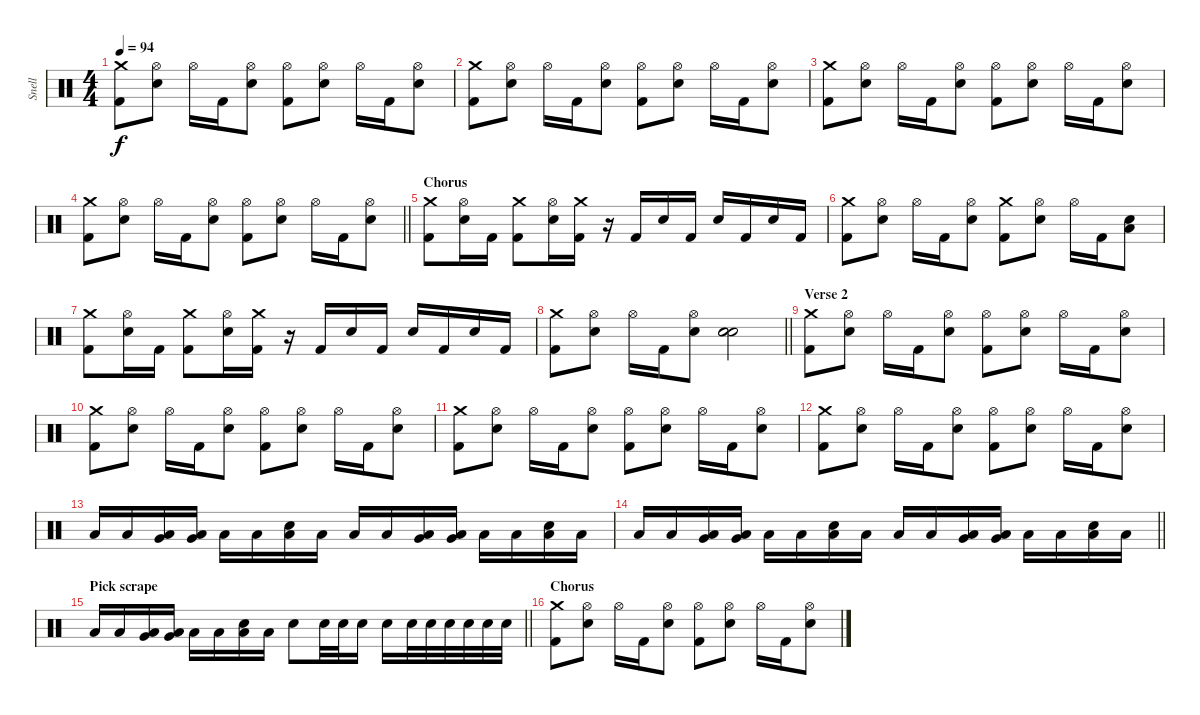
\track ("Snell" "Snell") {instrument percussion}
\staff {score}
\articulation defaults
\ts (4 4)
\tempo 94
\clef neutral
\ks c
("Crash medium (hit)" "Kick (hit) 2").8{dy f} ("Hi-Hat (open)" "Electric Snare (hit)").8 "Hi-Hat (open)".16 "Kick (hit) 2".16 ("Hi-Hat (open)" "Electric Snare (hit)").8 ("Hi-Hat (open)" "Kick (hit) 2").8 ("Hi-Hat (open)" "Electric Snare (hit)").8 "Hi-Hat (open)".16 "Kick (hit) 2".16 ("Hi-Hat (open)" "Electric Snare (hit)").8 |
("Crash medium (hit)" "Kick (hit) 2").8 ("Hi-Hat (open)" "Electric Snare (hit)").8 "Hi-Hat (open)".16 "Kick (hit) 2".16 ("Hi-Hat (open)" "Electric Snare (hit)").8 ("Hi-Hat (open)" "Kick (hit) 2").8 ("Hi-Hat (open)" "Electric Snare (hit)").8 "Hi-Hat (open)".16 "Kick (hit) 2".16 ("Hi-Hat (open)" "Electric Snare (hit)").8 |
("Crash medium (hit)" "Kick (hit) 2").8 ("Hi-Hat (open)" "Electric Snare (hit)").8 "Hi-Hat (open)".16 "Kick (hit) 2".16 ("Hi-Hat (open)" "Electric Snare (hit)").8 ("Hi-Hat (open)" "Kick (hit) 2").8 ("Hi-Hat (open)" "Electric Snare (hit)").8 "Hi-Hat (open)".16 "Kick (hit) 2".16 ("Hi-Hat (open)" "Electric Snare (hit)").8 |
\barLineRight lightlight
("Crash medium (hit)" "Kick (hit) 2").8 ("Hi-Hat (open)" "Electric Snare (hit)").8 "Hi-Hat (open)".16 "Kick (hit) 2".16 ("Hi-Hat (open)" "Electric Snare (hit)").8 ("Hi-Hat (open)" "Kick (hit) 2").8 ("Hi-Hat (open)" "Electric Snare (hit)").8 "Hi-Hat (open)".16 "Kick (hit) 2".16 ("Hi-Hat (open)" "Electric Snare (hit)").8 |
\section ("" "Chorus")
("Crash medium (hit)" "Kick (hit) 2").8 ("Hi-Hat (open)" "Electric Snare (hit)").16 "Kick (hit) 2".16 ("Crash medium (hit)" "Kick (hit) 2").8 ("Hi-Hat (open)" "Electric Snare (hit)").16 ("Crash medium (hit)" "Kick (hit) 2").16 r.16 "Kick (hit) 2".16 "Electric Snare (hit)".16 "Kick (hit) 2".16 "Electric Snare (hit)".16 "Kick (hit) 2".16 "Electric Snare (hit)".16 "Kick (hit) 2".16 |
("Crash medium (hit)" "Kick (hit) 2").8 ("Hi-Hat (open)" "Electric Snare (hit)").8 "Hi-Hat (open)".16 "Kick (hit) 2".16 ("Hi-Hat (open)" "Electric Snare (hit)").8 ("Crash medium (hit)" "Kick (hit) 2").8 ("Hi-Hat (open)" "Electric Snare (hit)").8 "Hi-Hat (open)".16 "Kick (hit) 2".16 ("Low Tom (hit)" "Electric Snare (hit)").8 |
("Crash medium (hit)" "Kick (hit) 2").8 ("Hi-Hat (open)" "Electric Snare (hit)").16 "Kick (hit) 2".16 ("Crash medium (hit)" "Kick (hit) 2").8 ("Hi-Hat (open)" "Electric Snare (hit)").16 ("Crash medium (hit)" "Kick (hit) 2").16 r.16 "Kick (hit) 2".16 "Electric Snare (hit)".16 "Kick (hit) 2".16 "Electric Snare (hit)".16 "Kick (hit) 2".16 "Electric Snare (hit)".16 "Kick (hit) 2".16 |
\barLineRight lightlight
("Crash medium (hit)" "Kick (hit) 2").8 ("Hi-Hat (open)" "Electric Snare (hit)").8 "Hi-Hat (open)".16 "Kick (hit) 2".16 ("Hi-Hat (open)" "Electric Snare (hit)").8 ("Electric Snare (hit)" "Electric Snare (hit)" "Snare (hit) 2").2 |
\section ("" "Verse 2")
("Crash medium (hit)" "Kick (hit) 2").8 ("Hi-Hat (open)" "Electric Snare (hit)").8 "Hi-Hat (open)".16 "Kick (hit) 2".16 ("Hi-Hat (open)" "Electric Snare (hit)").8 ("Hi-Hat (open)" "Kick (hit) 2").8 ("Hi-Hat (open)" "Electric Snare (hit)").8 "Hi-Hat (open)".16 "Kick (hit) 2".16 ("Hi-Hat (open)" "Electric Snare (hit)").8 |
("Crash medium (hit)" "Kick (hit) 2").8 ("Hi-Hat (open)" "Electric Snare (hit)").8 "Hi-Hat (open)".16 "Kick (hit) 2".16 ("Hi-Hat (open)" "Electric Snare (hit)").8 ("Hi-Hat (open)" "Kick (hit) 2").8 ("Hi-Hat (open)" "Electric Snare (hit)").8 "Hi-Hat (open)".16 "Kick (hit) 2".16 ("Hi-Hat (open)" "Electric Snare (hit)").8 |
("Crash medium (hit)" "Kick (hit) 2").8 ("Hi-Hat (open)" "Electric Snare (hit)").8 "Hi-Hat (open)".16 "Kick (hit) 2".16 ("Hi-Hat (open)" "Electric Snare (hit)").8 ("Hi-Hat (open)" "Kick (hit) 2").8 ("Hi-Hat (open)" "Electric Snare (hit)").8 "Hi-Hat (open)".16 "Kick (hit) 2".16 ("Hi-Hat (open)" "Electric Snare (hit)").8 |
("Crash medium (hit)" "Kick (hit) 2").8 ("Hi-Hat (open)" "Electric Snare (hit)").8 "Hi-Hat (open)".16 "Kick (hit) 2".16 ("Hi-Hat (open)" "Electric Snare (hit)").8 ("Hi-Hat (open)" "Kick (hit) 2").8 ("Hi-Hat (open)" "Electric Snare (hit)").8 "Hi-Hat (open)".16 "Kick (hit) 2".16 ("Hi-Hat (open)" "Electric Snare (hit)").8 |
"Low Tom (hit)".16 "Low Tom (hit)".16 ("Very Low Tom (hit)" "Low Tom (hit)").16 ("Very Low Tom (hit)" "Low Tom (hit)").16 "Low Tom (hit)".16 "Low Tom (hit)".16 ("Electric Snare (hit)" "Low Tom (hit)").16 "Low Tom (hit)".16 "Low Tom (hit)".16 "Low Tom (hit)".16 ("Very Low Tom (hit)" "Low Tom (hit)").16 ("Very Low Tom (hit)" "Low Tom (hit)").16 "Low Tom (hit)".16 "Low Tom (hit)".16 ("Electric Snare (hit)" "Low Tom (hit)").16 "Low Tom (hit)".16 |
\barLineRight lightlight "Low Tom (hit)".16 "Low Tom (hit)".16
("Very Low Tom (hit)" "Low Tom (hit)").16 ("Very Low Tom (hit)" "Low Tom (hit)").16 "Low Tom (hit)".16 "Low Tom (hit)".16 ("Electric Snare (hit)" "Low Tom (hit)").16 "Low Tom (hit)".16 "Low Tom (hit)".16 "Low Tom (hit)".16 ("Very Low Tom (hit)" "Low Tom (hit)").16 ("Very Low Tom (hit)" "Low Tom (hit)").16 "Low Tom (hit)".16 "Low Tom (hit)".16 ("Electric Snare (hit)" "Low Tom (hit)").16 "Low Tom (hit)".16 |
\section ("" "Pick scrape")
\barLineRight lightlight "Low Tom (hit)".16 "Low Tom (hit)".16
("Very Low Tom (hit)" "Low Tom (hit)").16 ("Very Low Tom (hit)" "Low Tom (hit)").16 "Low Tom (hit)".16 "Low Tom (hit)".16 ("Electric Snare (hit)" "Low Tom (hit)").16 "Low Tom (hit)".16 "Electric Snare (hit)".8 "Electric Snare (hit)".32 "Electric Snare (hit)".32 "Electric Snare (hit)".16 "Electric Snare (hit)".16 "Electric Snare (hit)".32 "Electric Snare (hit)".32 "Electric Snare (hit)".32 "Electric Snare (hit)".32 "Electric Snare (hit)".32 "Electric Snare (hit)".32 |
\section ("" "Chorus")
("Crash medium (hit)" "Kick (hit) 2").8 ("Hi-Hat (open)" "Electric Snare (hit)").8 "Hi-Hat (open)".16 "Kick (hit) 2".16 ("Hi-Hat (open)" "Electric Snare (hit)").8 ("Hi-Hat (open)" "Kick (hit) 2").8 ("Hi-Hat (open)" "Electric Snare (hit)").8 "Hi-Hat (open)".16 "Kick (hit) 2".16 ("Hi-Hat (open)" "Electric Snare (hit)").8
